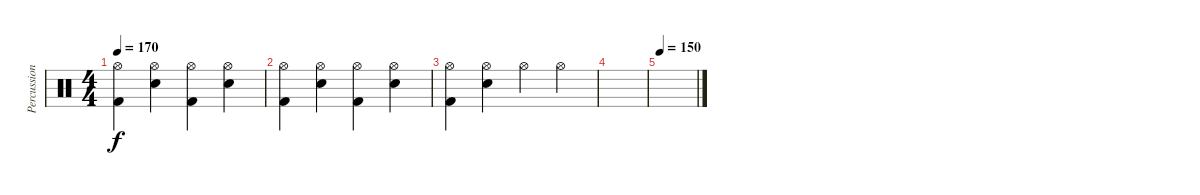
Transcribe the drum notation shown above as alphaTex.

\track ("Percussion" "Percussion") {instrument percussion}
\staff {score}
\articulation defaults
\ts (4 4)
\tempo 170
\clef neutral
\ks c
("Hi-Hat (open)" "Kick (hit) 2").4{dy f} ("Hi-Hat (open)" "Electric Snare (hit)").4 ("Hi-Hat (open)" "Kick (hit) 2").4 ("Hi-Hat (open)" "Electric Snare (hit)").4 |
("Hi-Hat (open)" "Kick (hit) 2").4 ("Hi-Hat (open)" "Electric Snare (hit)").4 ("Hi-Hat (open)" "Kick (hit) 2").4 ("Hi-Hat (open)" "Electric Snare (hit)").4 |
("Hi-Hat (open)" "Kick (hit) 2").4 ("Hi-Hat (open)" "Electric Snare (hit)").4 "Hi-Hat (open)".4 "Hi-Hat (open)".4 |
|
\tempo 150
